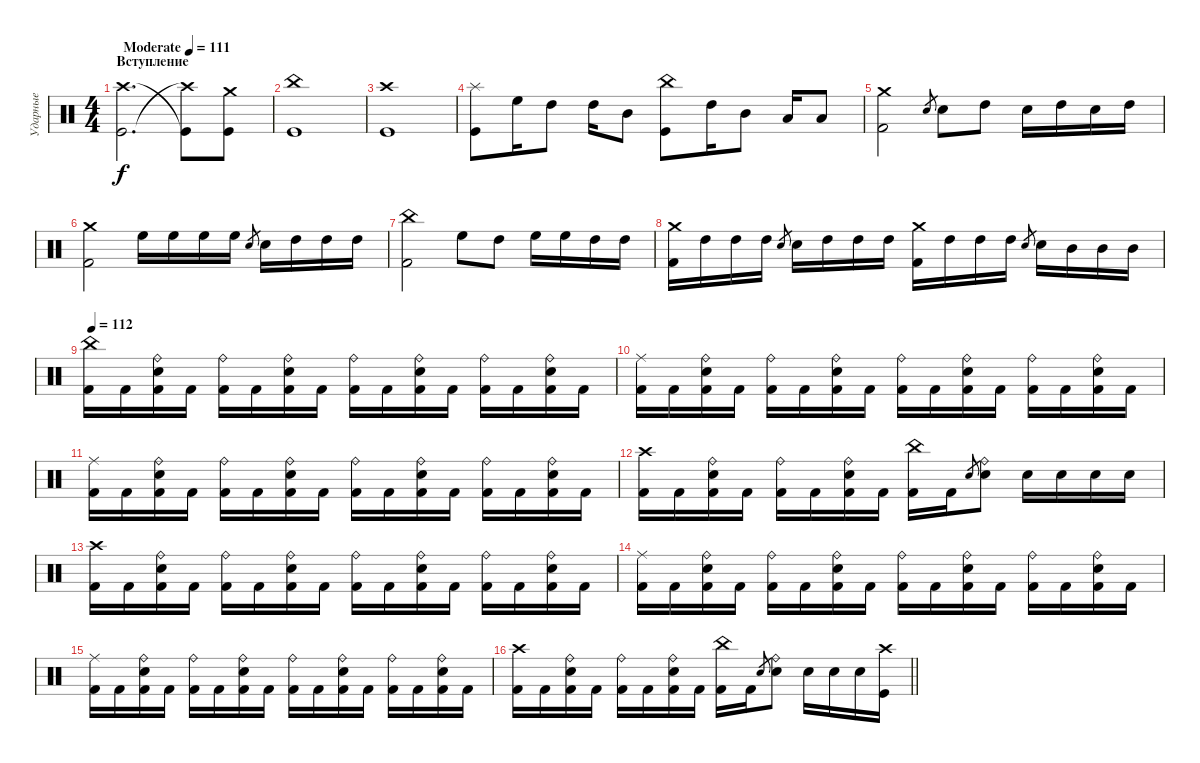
\track ("Ударные" "Ударные") {instrument percussion}
\staff {score}
\articulation defaults
\ts (4 4)
\section ("" "Вступление")
\tempo (111 "Moderate")
\clef neutral
\ks aminor
("Crash high (hit)" "Kick (hit)").2{d dy f} ("Kick (hit)"{t} "Crash high (hit)"{t}).8 ("Kick (hit)" "Crash medium (hit)").8 |
("Kick (hit)" "China (hit)").1 |
("Kick (hit)" "Crash high (hit)").1 |
("Kick (hit)" "Splash (hit)").8 "High Floor Tom (hit)".16 "High Tom (hit)".8 "High Tom (hit)".16 "Mid Tom (hit)".8 ("Kick (hit)" "China (hit)").8 "High Tom (hit)".16 "Mid Tom (hit)".8 "Low Tom (hit)".16 "Low Tom (hit)".8 |
("Kick (hit) 2" "Crash medium (hit)").2 "Electric Snare (hit)".8{gr} "Electric Snare (hit)".8 "High Tom (hit)".8 "Electric Snare (hit)".16 "High Tom (hit)".16 "Electric Snare (hit)".16 "High Tom (hit)".16 |
("Kick (hit) 2" "Crash medium (hit)").2 "High Floor Tom (hit)".16 "High Floor Tom (hit)".16 "High Floor Tom (hit)".16 "High Floor Tom (hit)".16 "Electric Snare (hit)".8{gr} "Electric Snare (hit)".16 "High Tom (hit)".16 "High Tom (hit)".16 "High Tom (hit)".16 |
("Kick (hit) 2" "China (hit)").2 "High Floor Tom (hit)".8 "High Tom (hit)".8 "High Floor Tom (hit)".16 "High Floor Tom (hit)".16 "High Tom (hit)".16 "High Tom (hit)".16 |
("Kick (hit) 2" "Crash medium (hit)").16 "High Tom (hit)".16 "High Tom (hit)".16 "High Tom (hit)".16 "Electric Snare (hit)".8{gr} "Electric Snare (hit)".16 "High Tom (hit)".16 "High Tom (hit)".16 "High Tom (hit)".16 ("Kick (hit) 2" "Crash medium (hit)").16 "High Tom (hit)".16 "High Tom (hit)".16 "High Tom (hit)".16 "Electric Snare (hit)".8{gr} "Electric Snare (hit)".16 "Mid Tom (hit)".16 "Mid Tom (hit)".16 "Mid Tom (hit)".16 |
\tempo 112
("Kick (hit) 2" "China (hit)").16 "Kick (hit) 2".16 ("Electric Snare (hit)" "Ride (bell)" "Kick (hit) 2").16 "Kick (hit) 2".16 ("Kick (hit) 2" "Ride (bell)").16 "Kick (hit) 2".16 ("Kick (hit) 2" "Electric Snare (hit)" "Ride (bell)").16 "Kick (hit) 2".16 ("Kick (hit) 2" "Ride (bell)").16 "Kick (hit) 2".16 ("Kick (hit) 2" "Electric Snare (hit)" "Ride (bell)").16 "Kick (hit) 2".16 ("Kick (hit) 2" "Ride (bell)").16 "Kick (hit) 2".16 ("Kick (hit) 2" "Ride (bell)" "Electric Snare (hit)").16 "Kick (hit) 2".16 |
("Kick (hit) 2" "Ride (middle)").16 "Kick (hit) 2".16 ("Electric Snare (hit)" "Ride (bell)" "Kick (hit) 2").16 "Kick (hit) 2".16 ("Kick (hit) 2" "Ride (bell)").16 "Kick (hit) 2".16 ("Kick (hit) 2" "Electric Snare (hit)" "Ride (bell)").16 "Kick (hit) 2".16 ("Kick (hit) 2" "Ride (bell)").16 "Kick (hit) 2".16 ("Kick (hit) 2" "Electric Snare (hit)" "Ride (bell)").16 "Kick (hit) 2".16 ("Kick (hit) 2" "Ride (bell)").16 "Kick (hit) 2".16 ("Kick (hit) 2" "Ride (bell)" "Electric Snare (hit)").16 "Kick (hit) 2".16 |
("Kick (hit) 2" "Ride (middle)").16 "Kick (hit) 2".16 ("Electric Snare (hit)" "Ride (bell)" "Kick (hit) 2").16 "Kick (hit) 2".16 ("Kick (hit) 2" "Ride (bell)").16 "Kick (hit) 2".16 ("Kick (hit) 2" "Electric Snare (hit)" "Ride (bell)").16 "Kick (hit) 2".16 ("Kick (hit) 2" "Ride (bell)").16 "Kick (hit) 2".16 ("Kick (hit) 2" "Electric Snare (hit)" "Ride (bell)").16 "Kick (hit) 2".16 ("Kick (hit) 2" "Ride (bell)").16 "Kick (hit) 2".16 ("Kick (hit) 2" "Ride (bell)" "Electric Snare (hit)").16 "Kick (hit) 2".16 |
("Kick (hit) 2" "Crash high (hit)").16 "Kick (hit) 2".16 ("Electric Snare (hit)" "Ride (bell)" "Kick (hit) 2").16 "Kick (hit) 2".16 ("Kick (hit) 2" "Ride (bell)").16 "Kick (hit) 2".16 ("Kick (hit) 2" "Electric Snare (hit)" "Ride (bell)").16 "Kick (hit) 2".16 ("Kick (hit) 2" "China (hit)").16 "Kick (hit) 2".16 "Electric Snare (hit)".8{gr} ("Electric Snare (hit)" "Ride (bell)").8 "Electric Snare (hit)".16 "Electric Snare (hit)".16 "Electric Snare (hit)".16 "Electric Snare (hit)".16 |
("Kick (hit) 2" "Crash high (hit)").16 "Kick (hit) 2".16 ("Electric Snare (hit)" "Ride (bell)" "Kick (hit) 2").16 "Kick (hit) 2".16 ("Kick (hit) 2" "Ride (bell)").16 "Kick (hit) 2".16 ("Kick (hit) 2" "Electric Snare (hit)" "Ride (bell)").16 "Kick (hit) 2".16 ("Kick (hit) 2" "Ride (bell)").16 "Kick (hit) 2".16 ("Kick (hit) 2" "Electric Snare (hit)" "Ride (bell)").16 "Kick (hit) 2".16 ("Kick (hit) 2" "Ride (bell)").16 "Kick (hit) 2".16 ("Kick (hit) 2" "Ride (bell)" "Electric Snare (hit)").16 "Kick (hit) 2".16 |
("Kick (hit) 2" "Ride (middle)").16 "Kick (hit) 2".16 ("Electric Snare (hit)" "Ride (bell)" "Kick (hit) 2").16 "Kick (hit) 2".16 ("Kick (hit) 2" "Ride (bell)").16 "Kick (hit) 2".16 ("Kick (hit) 2" "Electric Snare (hit)" "Ride (bell)").16 "Kick (hit) 2".16 ("Kick (hit) 2" "Ride (bell)").16 "Kick (hit) 2".16 ("Kick (hit) 2" "Electric Snare (hit)" "Ride (bell)").16 "Kick (hit) 2".16 ("Kick (hit) 2" "Ride (bell)").16 "Kick (hit) 2".16 ("Kick (hit) 2" "Ride (bell)" "Electric Snare (hit)").16 "Kick (hit) 2".16 |
("Kick (hit) 2" "Ride (middle)").16 "Kick (hit) 2".16 ("Electric Snare (hit)" "Ride (bell)" "Kick (hit) 2").16 "Kick (hit) 2".16 ("Kick (hit) 2" "Ride (bell)").16 "Kick (hit) 2".16 ("Kick (hit) 2" "Electric Snare (hit)" "Ride (bell)").16 "Kick (hit) 2".16 ("Kick (hit) 2" "Ride (bell)").16 "Kick (hit) 2".16 ("Kick (hit) 2" "Electric Snare (hit)" "Ride (bell)").16 "Kick (hit) 2".16 ("Kick (hit) 2" "Ride (bell)").16 "Kick (hit) 2".16 ("Kick (hit) 2" "Ride (bell)" "Electric Snare (hit)").16 "Kick (hit) 2".16 |
\barLineRight lightlight
("Kick (hit) 2" "Crash high (hit)").16 "Kick (hit) 2".16 ("Electric Snare (hit)" "Ride (bell)" "Kick (hit) 2").16 "Kick (hit) 2".16 ("Kick (hit) 2" "Ride (bell)").16 "Kick (hit) 2".16 ("Kick (hit) 2" "Electric Snare (hit)" "Ride (bell)").16 "Kick (hit) 2".16 ("Kick (hit) 2" "China (hit)").16 "Kick (hit) 2".16 "Electric Snare (hit)".8{gr} ("Electric Snare (hit)" "Ride (bell)").8 "Electric Snare (hit)".16 "Electric Snare (hit)".16 "Electric Snare (hit)".16 ("Kick (hit)" "Crash high (hit)").16
